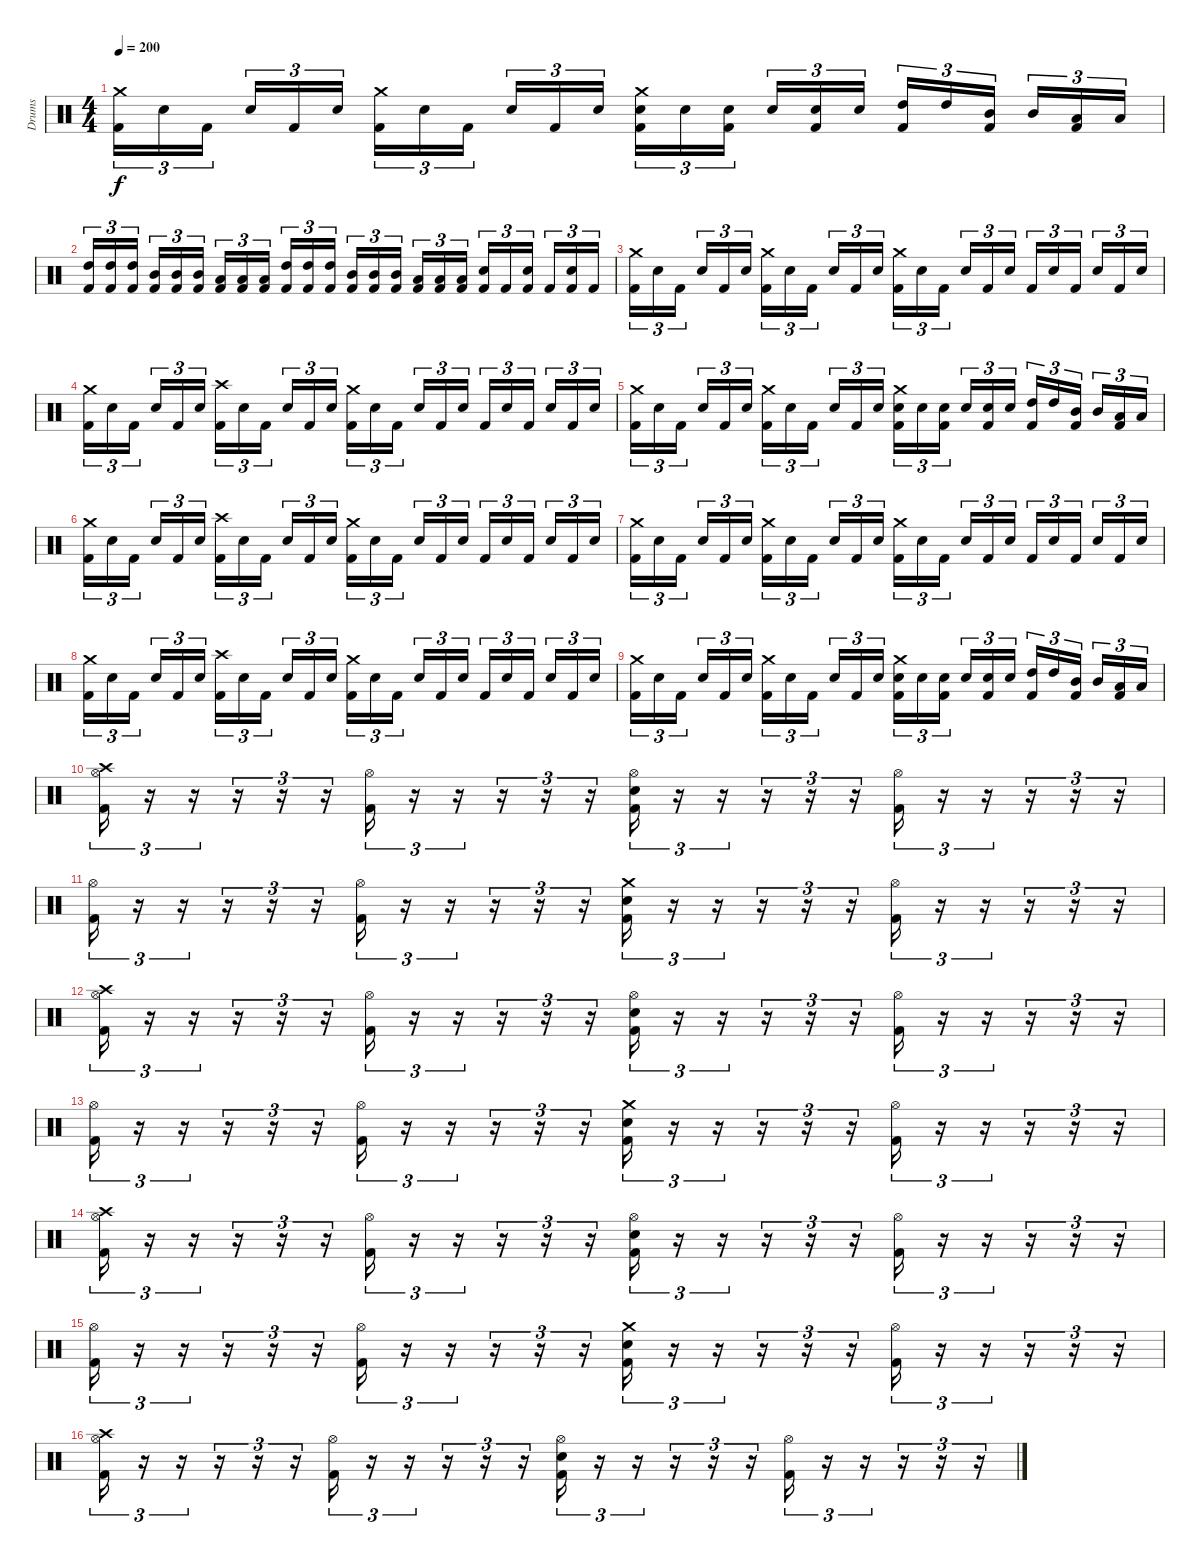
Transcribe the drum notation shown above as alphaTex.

\track ("Drums" "Drums") {instrument percussion}
\staff {score}
\articulation defaults
\ts (4 4)
\tempo 200
\clef neutral
\ks c
("Crash medium (hit)" "Kick (hit) 2").16{tu (3 2) dy f} "Electric Snare (hit)".16{tu (3 2)} "Kick (hit) 2".16{tu (3 2)} "Electric Snare (hit)".16{tu (3 2)} "Kick (hit) 2".16{tu (3 2)} "Electric Snare (hit)".16{tu (3 2)} ("Crash medium (hit)" "Kick (hit) 2").16{tu (3 2)} "Electric Snare (hit)".16{tu (3 2)} "Kick (hit) 2".16{tu (3 2)} "Electric Snare (hit)".16{tu (3 2)} "Kick (hit) 2".16{tu (3 2)} "Electric Snare (hit)".16{tu (3 2)} ("Crash medium (hit)" "Electric Snare (hit)" "Kick (hit) 2").16{tu (3 2)} "Electric Snare (hit)".16{tu (3 2)} ("Electric Snare (hit)" "Kick (hit) 2").16{tu (3 2)} "Electric Snare (hit)".16{tu (3 2)} ("Electric Snare (hit)" "Kick (hit) 2").16{tu (3 2)} "Electric Snare (hit)".16{tu (3 2)} ("High Tom (hit)" "Kick (hit) 2").16{tu (3 2)} "High Tom (hit)".16{tu (3 2)} ("Mid Tom (hit)" "Kick (hit) 2").16{tu (3 2)} "Mid Tom (hit)".16{tu (3 2)} ("Low Tom (hit)" "Kick (hit) 2").16{tu (3 2)} "Low Tom (hit)".16{tu (3 2)} |
("High Tom (hit)" "Kick (hit) 2").16{tu (3 2)} ("High Tom (hit)" "Kick (hit) 2").16{tu (3 2)} ("High Tom (hit)" "Kick (hit) 2").16{tu (3 2)} ("Mid Tom (hit)" "Kick (hit) 2").16{tu (3 2)} ("Mid Tom (hit)" "Kick (hit) 2").16{tu (3 2)} ("Mid Tom (hit)" "Kick (hit) 2").16{tu (3 2)} ("Low Tom (hit)" "Kick (hit) 2").16{tu (3 2)} ("Low Tom (hit)" "Kick (hit) 2").16{tu (3 2)} ("Low Tom (hit)" "Kick (hit) 2").16{tu (3 2)} ("High Tom (hit)" "Kick (hit) 2").16{tu (3 2)} ("High Tom (hit)" "Kick (hit) 2").16{tu (3 2)} ("High Tom (hit)" "Kick (hit) 2").16{tu (3 2)} ("Mid Tom (hit)" "Kick (hit) 2").16{tu (3 2)} ("Mid Tom (hit)" "Kick (hit) 2").16{tu (3 2)} ("Mid Tom (hit)" "Kick (hit) 2").16{tu (3 2)} ("Low Tom (hit)" "Kick (hit) 2").16{tu (3 2)} ("Low Tom (hit)" "Kick (hit) 2").16{tu (3 2)} ("Low Tom (hit)" "Kick (hit) 2").16{tu (3 2)} ("Electric Snare (hit)" "Kick (hit) 2").16{tu (3 2)} "Kick (hit) 2".16{tu (3 2)} ("Electric Snare (hit)" "Kick (hit) 2").16{tu (3 2)} "Kick (hit) 2".16{tu (3 2)} ("Electric Snare (hit)" "Kick (hit) 2").16{tu (3 2)} "Kick (hit) 2".16{tu (3 2)} |
("Crash medium (hit)" "Kick (hit) 2").16{tu (3 2)} "Electric Snare (hit)".16{tu (3 2)} "Kick (hit) 2".16{tu (3 2)} "Electric Snare (hit)".16{tu (3 2)} "Kick (hit) 2".16{tu (3 2)} "Electric Snare (hit)".16{tu (3 2)} ("Crash medium (hit)" "Kick (hit) 2").16{tu (3 2)} "Electric Snare (hit)".16{tu (3 2)} "Kick (hit) 2".16{tu (3 2)} "Electric Snare (hit)".16{tu (3 2)} "Kick (hit) 2".16{tu (3 2)} "Electric Snare (hit)".16{tu (3 2)} ("Crash medium (hit)" "Kick (hit) 2").16{tu (3 2)} "Electric Snare (hit)".16{tu (3 2)} "Kick (hit) 2".16{tu (3 2)} "Electric Snare (hit)".16{tu (3 2)} "Kick (hit) 2".16{tu (3 2)} "Electric Snare (hit)".16{tu (3 2)} "Kick (hit) 2".16{tu (3 2)} "Electric Snare (hit)".16{tu (3 2)} "Kick (hit) 2".16{tu (3 2)} "Electric Snare (hit)".16{tu (3 2)} "Kick (hit) 2".16{tu (3 2)} "Electric Snare (hit)".16{tu (3 2)} |
("Crash medium (hit)" "Kick (hit) 2").16{tu (3 2)} "Electric Snare (hit)".16{tu (3 2)} "Kick (hit) 2".16{tu (3 2)} "Electric Snare (hit)".16{tu (3 2)} "Kick (hit) 2".16{tu (3 2)} "Electric Snare (hit)".16{tu (3 2)} ("Crash high (hit)" "Kick (hit) 2").16{tu (3 2)} "Electric Snare (hit)".16{tu (3 2)} "Kick (hit) 2".16{tu (3 2)} "Electric Snare (hit)".16{tu (3 2)} "Kick (hit) 2".16{tu (3 2)} "Electric Snare (hit)".16{tu (3 2)} ("Crash medium (hit)" "Kick (hit) 2").16{tu (3 2)} "Electric Snare (hit)".16{tu (3 2)} "Kick (hit) 2".16{tu (3 2)} "Electric Snare (hit)".16{tu (3 2)} "Kick (hit) 2".16{tu (3 2)} "Electric Snare (hit)".16{tu (3 2)} "Kick (hit) 2".16{tu (3 2)} "Electric Snare (hit)".16{tu (3 2)} "Kick (hit) 2".16{tu (3 2)} "Electric Snare (hit)".16{tu (3 2)} "Kick (hit) 2".16{tu (3 2)} "Electric Snare (hit)".16{tu (3 2)} |
("Crash medium (hit)" "Kick (hit) 2").16{tu (3 2)} "Electric Snare (hit)".16{tu (3 2)} "Kick (hit) 2".16{tu (3 2)} "Electric Snare (hit)".16{tu (3 2)} "Kick (hit) 2".16{tu (3 2)} "Electric Snare (hit)".16{tu (3 2)} ("Crash medium (hit)" "Kick (hit) 2").16{tu (3 2)} "Electric Snare (hit)".16{tu (3 2)} "Kick (hit) 2".16{tu (3 2)} "Electric Snare (hit)".16{tu (3 2)} "Kick (hit) 2".16{tu (3 2)} "Electric Snare (hit)".16{tu (3 2)} ("Crash medium (hit)" "Electric Snare (hit)" "Kick (hit) 2").16{tu (3 2)} "Electric Snare (hit)".16{tu (3 2)} ("Electric Snare (hit)" "Kick (hit) 2").16{tu (3 2)} "Electric Snare (hit)".16{tu (3 2)} ("Electric Snare (hit)" "Kick (hit) 2").16{tu (3 2)} "Electric Snare (hit)".16{tu (3 2)} ("High Tom (hit)" "Kick (hit) 2").16{tu (3 2)} "High Tom (hit)".16{tu (3 2)} ("Mid Tom (hit)" "Kick (hit) 2").16{tu (3 2)} "Mid Tom (hit)".16{tu (3 2)} ("Low Tom (hit)" "Kick (hit) 2").16{tu (3 2)} "Low Tom (hit)".16{tu (3 2)} |
("Crash medium (hit)" "Kick (hit) 2").16{tu (3 2)} "Electric Snare (hit)".16{tu (3 2)} "Kick (hit) 2".16{tu (3 2)} "Electric Snare (hit)".16{tu (3 2)} "Kick (hit) 2".16{tu (3 2)} "Electric Snare (hit)".16{tu (3 2)} ("Crash high (hit)" "Kick (hit) 2").16{tu (3 2)} "Electric Snare (hit)".16{tu (3 2)} "Kick (hit) 2".16{tu (3 2)} "Electric Snare (hit)".16{tu (3 2)} "Kick (hit) 2".16{tu (3 2)} "Electric Snare (hit)".16{tu (3 2)} ("Crash medium (hit)" "Kick (hit) 2").16{tu (3 2)} "Electric Snare (hit)".16{tu (3 2)} "Kick (hit) 2".16{tu (3 2)} "Electric Snare (hit)".16{tu (3 2)} "Kick (hit) 2".16{tu (3 2)} "Electric Snare (hit)".16{tu (3 2)} "Kick (hit) 2".16{tu (3 2)} "Electric Snare (hit)".16{tu (3 2)} "Kick (hit) 2".16{tu (3 2)} "Electric Snare (hit)".16{tu (3 2)} "Kick (hit) 2".16{tu (3 2)} "Electric Snare (hit)".16{tu (3 2)} |
("Crash medium (hit)" "Kick (hit) 2").16{tu (3 2)} "Electric Snare (hit)".16{tu (3 2)} "Kick (hit) 2".16{tu (3 2)} "Electric Snare (hit)".16{tu (3 2)} "Kick (hit) 2".16{tu (3 2)} "Electric Snare (hit)".16{tu (3 2)} ("Crash medium (hit)" "Kick (hit) 2").16{tu (3 2)} "Electric Snare (hit)".16{tu (3 2)} "Kick (hit) 2".16{tu (3 2)} "Electric Snare (hit)".16{tu (3 2)} "Kick (hit) 2".16{tu (3 2)} "Electric Snare (hit)".16{tu (3 2)} ("Crash medium (hit)" "Kick (hit) 2").16{tu (3 2)} "Electric Snare (hit)".16{tu (3 2)} "Kick (hit) 2".16{tu (3 2)} "Electric Snare (hit)".16{tu (3 2)} "Kick (hit) 2".16{tu (3 2)} "Electric Snare (hit)".16{tu (3 2)} "Kick (hit) 2".16{tu (3 2)} "Electric Snare (hit)".16{tu (3 2)} "Kick (hit) 2".16{tu (3 2)} "Electric Snare (hit)".16{tu (3 2)} "Kick (hit) 2".16{tu (3 2)} "Electric Snare (hit)".16{tu (3 2)} |
("Crash medium (hit)" "Kick (hit) 2").16{tu (3 2)} "Electric Snare (hit)".16{tu (3 2)} "Kick (hit) 2".16{tu (3 2)} "Electric Snare (hit)".16{tu (3 2)} "Kick (hit) 2".16{tu (3 2)} "Electric Snare (hit)".16{tu (3 2)} ("Crash high (hit)" "Kick (hit) 2").16{tu (3 2)} "Electric Snare (hit)".16{tu (3 2)} "Kick (hit) 2".16{tu (3 2)} "Electric Snare (hit)".16{tu (3 2)} "Kick (hit) 2".16{tu (3 2)} "Electric Snare (hit)".16{tu (3 2)} ("Crash medium (hit)" "Kick (hit) 2").16{tu (3 2)} "Electric Snare (hit)".16{tu (3 2)} "Kick (hit) 2".16{tu (3 2)} "Electric Snare (hit)".16{tu (3 2)} "Kick (hit) 2".16{tu (3 2)} "Electric Snare (hit)".16{tu (3 2)} "Kick (hit) 2".16{tu (3 2)} "Electric Snare (hit)".16{tu (3 2)} "Kick (hit) 2".16{tu (3 2)} "Electric Snare (hit)".16{tu (3 2)} "Kick (hit) 2".16{tu (3 2)} "Electric Snare (hit)".16{tu (3 2)} |
("Crash medium (hit)" "Kick (hit) 2").16{tu (3 2)} "Electric Snare (hit)".16{tu (3 2)} "Kick (hit) 2".16{tu (3 2)} "Electric Snare (hit)".16{tu (3 2)} "Kick (hit) 2".16{tu (3 2)} "Electric Snare (hit)".16{tu (3 2)} ("Crash medium (hit)" "Kick (hit) 2").16{tu (3 2)} "Electric Snare (hit)".16{tu (3 2)} "Kick (hit) 2".16{tu (3 2)} "Electric Snare (hit)".16{tu (3 2)} "Kick (hit) 2".16{tu (3 2)} "Electric Snare (hit)".16{tu (3 2)} ("Crash medium (hit)" "Electric Snare (hit)" "Kick (hit) 2").16{tu (3 2)} "Electric Snare (hit)".16{tu (3 2)} ("Electric Snare (hit)" "Kick (hit) 2").16{tu (3 2)} "Electric Snare (hit)".16{tu (3 2)} ("Electric Snare (hit)" "Kick (hit) 2").16{tu (3 2)} "Electric Snare (hit)".16{tu (3 2)} ("High Tom (hit)" "Kick (hit) 2").16{tu (3 2)} "High Tom (hit)".16{tu (3 2)} ("Mid Tom (hit)" "Kick (hit) 2").16{tu (3 2)} "Mid Tom (hit)".16{tu (3 2)} ("Low Tom (hit)" "Kick (hit) 2").16{tu (3 2)} "Low Tom (hit)".16{tu (3 2)} |
("Crash high (hit)" "Hi-Hat (open)" "Kick (hit) 2").16{tu (3 2)} r.16{tu (3 2)} r.16{tu (3 2)} r.16{tu (3 2)} r.16{tu (3 2)} r.16{tu (3 2)} ("Hi-Hat (open)" "Kick (hit) 2").16{tu (3 2)} r.16{tu (3 2)} r.16{tu (3 2)} r.16{tu (3 2)} r.16{tu (3 2)} r.16{tu (3 2)} ("Hi-Hat (open)" "Electric Snare (hit)" "Kick (hit) 2").16{tu (3 2)} r.16{tu (3 2)} r.16{tu (3 2)} r.16{tu (3 2)} r.16{tu (3 2)} r.16{tu (3 2)} ("Hi-Hat (open)" "Kick (hit) 2").16{tu (3 2)} r.16{tu (3 2)} r.16{tu (3 2)} r.16{tu (3 2)} r.16{tu (3 2)} r.16{tu (3 2)} |
("Hi-Hat (open)" "Kick (hit) 2").16{tu (3 2)} r.16{tu (3 2)} r.16{tu (3 2)} r.16{tu (3 2)} r.16{tu (3 2)} r.16{tu (3 2)} ("Hi-Hat (open)" "Kick (hit) 2").16{tu (3 2)} r.16{tu (3 2)} r.16{tu (3 2)} r.16{tu (3 2)} r.16{tu (3 2)} r.16{tu (3 2)} ("Crash medium (hit)" "Electric Snare (hit)" "Kick (hit) 2").16{tu (3 2)} r.16{tu (3 2)} r.16{tu (3 2)} r.16{tu (3 2)} r.16{tu (3 2)} r.16{tu (3 2)} ("Hi-Hat (open)" "Kick (hit) 2").16{tu (3 2)} r.16{tu (3 2)} r.16{tu (3 2)} r.16{tu (3 2)} r.16{tu (3 2)} r.16{tu (3 2)} |
("Crash high (hit)" "Hi-Hat (open)" "Kick (hit) 2").16{tu (3 2)} r.16{tu (3 2)} r.16{tu (3 2)} r.16{tu (3 2)} r.16{tu (3 2)} r.16{tu (3 2)} ("Hi-Hat (open)" "Kick (hit) 2").16{tu (3 2)} r.16{tu (3 2)} r.16{tu (3 2)} r.16{tu (3 2)} r.16{tu (3 2)} r.16{tu (3 2)} ("Hi-Hat (open)" "Electric Snare (hit)" "Kick (hit) 2").16{tu (3 2)} r.16{tu (3 2)} r.16{tu (3 2)} r.16{tu (3 2)} r.16{tu (3 2)} r.16{tu (3 2)} ("Hi-Hat (open)" "Kick (hit) 2").16{tu (3 2)} r.16{tu (3 2)} r.16{tu (3 2)} r.16{tu (3 2)} r.16{tu (3 2)} r.16{tu (3 2)} |
("Hi-Hat (open)" "Kick (hit) 2").16{tu (3 2)} r.16{tu (3 2)} r.16{tu (3 2)} r.16{tu (3 2)} r.16{tu (3 2)} r.16{tu (3 2)} ("Hi-Hat (open)" "Kick (hit) 2").16{tu (3 2)} r.16{tu (3 2)} r.16{tu (3 2)} r.16{tu (3 2)} r.16{tu (3 2)} r.16{tu (3 2)} ("Crash medium (hit)" "Electric Snare (hit)" "Kick (hit) 2").16{tu (3 2)} r.16{tu (3 2)} r.16{tu (3 2)} r.16{tu (3 2)} r.16{tu (3 2)} r.16{tu (3 2)} ("Hi-Hat (open)" "Kick (hit) 2").16{tu (3 2)} r.16{tu (3 2)} r.16{tu (3 2)} r.16{tu (3 2)} r.16{tu (3 2)} r.16{tu (3 2)} |
("Crash high (hit)" "Hi-Hat (open)" "Kick (hit) 2").16{tu (3 2)} r.16{tu (3 2)} r.16{tu (3 2)} r.16{tu (3 2)} r.16{tu (3 2)} r.16{tu (3 2)} ("Hi-Hat (open)" "Kick (hit) 2").16{tu (3 2)} r.16{tu (3 2)} r.16{tu (3 2)} r.16{tu (3 2)} r.16{tu (3 2)} r.16{tu (3 2)} ("Hi-Hat (open)" "Electric Snare (hit)" "Kick (hit) 2").16{tu (3 2)} r.16{tu (3 2)} r.16{tu (3 2)} r.16{tu (3 2)} r.16{tu (3 2)} r.16{tu (3 2)} ("Hi-Hat (open)" "Kick (hit) 2").16{tu (3 2)} r.16{tu (3 2)} r.16{tu (3 2)} r.16{tu (3 2)} r.16{tu (3 2)} r.16{tu (3 2)} |
("Hi-Hat (open)" "Kick (hit) 2").16{tu (3 2)} r.16{tu (3 2)} r.16{tu (3 2)} r.16{tu (3 2)} r.16{tu (3 2)} r.16{tu (3 2)} ("Hi-Hat (open)" "Kick (hit) 2").16{tu (3 2)} r.16{tu (3 2)} r.16{tu (3 2)} r.16{tu (3 2)} r.16{tu (3 2)} r.16{tu (3 2)} ("Crash medium (hit)" "Electric Snare (hit)" "Kick (hit) 2").16{tu (3 2)} r.16{tu (3 2)} r.16{tu (3 2)} r.16{tu (3 2)} r.16{tu (3 2)} r.16{tu (3 2)} ("Hi-Hat (open)" "Kick (hit) 2").16{tu (3 2)} r.16{tu (3 2)} r.16{tu (3 2)} r.16{tu (3 2)} r.16{tu (3 2)} r.16{tu (3 2)} |
("Crash high (hit)" "Hi-Hat (open)" "Kick (hit) 2").16{tu (3 2)} r.16{tu (3 2)} r.16{tu (3 2)} r.16{tu (3 2)} r.16{tu (3 2)} r.16{tu (3 2)} ("Hi-Hat (open)" "Kick (hit) 2").16{tu (3 2)} r.16{tu (3 2)} r.16{tu (3 2)} r.16{tu (3 2)} r.16{tu (3 2)} r.16{tu (3 2)} ("Hi-Hat (open)" "Electric Snare (hit)" "Kick (hit) 2").16{tu (3 2)} r.16{tu (3 2)} r.16{tu (3 2)} r.16{tu (3 2)} r.16{tu (3 2)} r.16{tu (3 2)} ("Hi-Hat (open)" "Kick (hit) 2").16{tu (3 2)} r.16{tu (3 2)} r.16{tu (3 2)} r.16{tu (3 2)} r.16{tu (3 2)} r.16{tu (3 2)}
